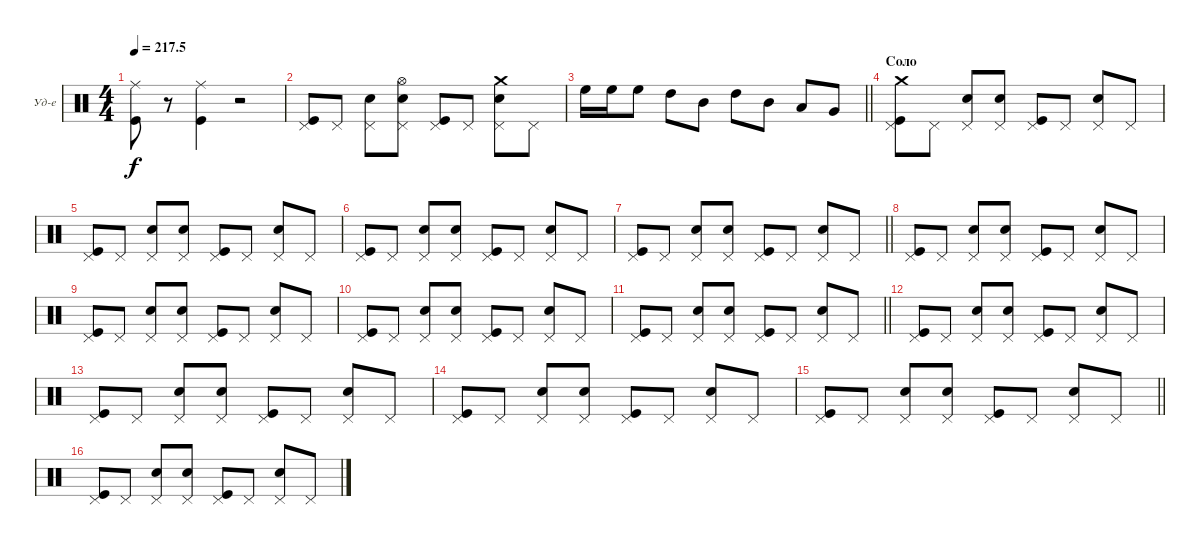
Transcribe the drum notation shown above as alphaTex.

\bracketExtendMode groupsimilarinstruments
\firstSystemTrackNameOrientation horizontal
\otherSystemsTrackNameOrientation horizontal
\track ("Ударные" "Уд-е") {instrument percussion}
\staff {score}
\articulation defaults
\ts (4 4)
\tempo
217.5
\accidentals auto
\clef neutral
\ottava regular
\simile none
\ks c
("Kick (hit)" "Ride (middle)").8{dy f} r.8 ("Kick (hit)" "Ride (middle)").4 r.2 |
("Pedal Hi-Hat (hit)" "Kick (hit)").8 "Pedal Hi-Hat (hit)".8 ("Pedal Hi-Hat (hit)" "Snare (hit) 2").8 ("Pedal Hi-Hat (hit)" "Snare (hit) 2" "Hi-Hat (open)").8 ("Pedal Hi-Hat (hit)" "Kick (hit)").8 "Pedal Hi-Hat (hit)".8 ("Pedal Hi-Hat (hit)" "Snare (hit) 2" "Crash medium (hit)").8 "Pedal Hi-Hat (hit)".8 |
\barLineRight lightlight "High Floor Tom (hit)".16 "High Floor Tom (hit)".16 "High Floor Tom (hit)".8 "High Tom (hit)".8 "Mid Tom (hit)".8 "High Tom (hit)".8 "Mid Tom (hit)".8 "Low Tom (hit)".8 "Very Low Tom (hit)".8
|
\section ("" "Соло")
("Pedal Hi-Hat (hit)" "Kick (hit)" "Crash medium (hit)").8 "Pedal Hi-Hat (hit)".8 ("Pedal Hi-Hat (hit)" "Snare (hit) 2").8 ("Pedal Hi-Hat (hit)" "Snare (hit) 2").8 ("Pedal Hi-Hat (hit)" "Kick (hit)").8 "Pedal Hi-Hat (hit)".8 ("Pedal Hi-Hat (hit)" "Snare (hit) 2").8 "Pedal Hi-Hat (hit)".8 |
("Pedal Hi-Hat (hit)" "Kick (hit)").8 "Pedal Hi-Hat (hit)".8 ("Pedal Hi-Hat (hit)" "Snare (hit) 2").8 ("Pedal Hi-Hat (hit)" "Snare (hit) 2").8 ("Pedal Hi-Hat (hit)" "Kick (hit)").8 "Pedal Hi-Hat (hit)".8 ("Pedal Hi-Hat (hit)" "Snare (hit) 2").8 "Pedal Hi-Hat (hit)".8 |
("Pedal Hi-Hat (hit)" "Kick (hit)").8 "Pedal Hi-Hat (hit)".8 ("Pedal Hi-Hat (hit)" "Snare (hit) 2").8 ("Pedal Hi-Hat (hit)" "Snare (hit) 2").8 ("Pedal Hi-Hat (hit)" "Kick (hit)").8 "Pedal Hi-Hat (hit)".8 ("Pedal Hi-Hat (hit)" "Snare (hit) 2").8 "Pedal Hi-Hat (hit)".8 |
\barLineRight lightlight
("Pedal Hi-Hat (hit)" "Kick (hit)").8 "Pedal Hi-Hat (hit)".8 ("Pedal Hi-Hat (hit)" "Snare (hit) 2").8 ("Pedal Hi-Hat (hit)" "Snare (hit) 2").8 ("Pedal Hi-Hat (hit)" "Kick (hit)").8 "Pedal Hi-Hat (hit)".8 ("Pedal Hi-Hat (hit)" "Snare (hit) 2").8 "Pedal Hi-Hat (hit)".8 |
("Pedal Hi-Hat (hit)" "Kick (hit)").8 "Pedal Hi-Hat (hit)".8 ("Pedal Hi-Hat (hit)" "Snare (hit) 2").8 ("Pedal Hi-Hat (hit)" "Snare (hit) 2").8 ("Pedal Hi-Hat (hit)" "Kick (hit)").8 "Pedal Hi-Hat (hit)".8 ("Pedal Hi-Hat (hit)" "Snare (hit) 2").8 "Pedal Hi-Hat (hit)".8 |
("Pedal Hi-Hat (hit)" "Kick (hit)").8 "Pedal Hi-Hat (hit)".8 ("Pedal Hi-Hat (hit)" "Snare (hit) 2").8 ("Pedal Hi-Hat (hit)" "Snare (hit) 2").8 ("Pedal Hi-Hat (hit)" "Kick (hit)").8 "Pedal Hi-Hat (hit)".8 ("Pedal Hi-Hat (hit)" "Snare (hit) 2").8 "Pedal Hi-Hat (hit)".8 |
("Pedal Hi-Hat (hit)" "Kick (hit)").8 "Pedal Hi-Hat (hit)".8 ("Pedal Hi-Hat (hit)" "Snare (hit) 2").8 ("Pedal Hi-Hat (hit)" "Snare (hit) 2").8 ("Pedal Hi-Hat (hit)" "Kick (hit)").8 "Pedal Hi-Hat (hit)".8 ("Pedal Hi-Hat (hit)" "Snare (hit) 2").8 "Pedal Hi-Hat (hit)".8 |
\barLineRight lightlight
("Pedal Hi-Hat (hit)" "Kick (hit)").8 "Pedal Hi-Hat (hit)".8 ("Pedal Hi-Hat (hit)" "Snare (hit) 2").8 ("Pedal Hi-Hat (hit)" "Snare (hit) 2").8 ("Pedal Hi-Hat (hit)" "Kick (hit)").8 "Pedal Hi-Hat (hit)".8 ("Pedal Hi-Hat (hit)" "Snare (hit) 2").8 "Pedal Hi-Hat (hit)".8 |
("Pedal Hi-Hat (hit)" "Kick (hit)").8 "Pedal Hi-Hat (hit)".8 ("Pedal Hi-Hat (hit)" "Snare (hit) 2").8 ("Pedal Hi-Hat (hit)" "Snare (hit) 2").8 ("Pedal Hi-Hat (hit)" "Kick (hit)").8 "Pedal Hi-Hat (hit)".8 ("Pedal Hi-Hat (hit)" "Snare (hit) 2").8 "Pedal Hi-Hat (hit)".8 |
("Pedal Hi-Hat (hit)" "Kick (hit)").8 "Pedal Hi-Hat (hit)".8 ("Pedal Hi-Hat (hit)" "Snare (hit) 2").8 ("Pedal Hi-Hat (hit)" "Snare (hit) 2").8 ("Pedal Hi-Hat (hit)" "Kick (hit)").8 "Pedal Hi-Hat (hit)".8 ("Pedal Hi-Hat (hit)" "Snare (hit) 2").8 "Pedal Hi-Hat (hit)".8 |
("Pedal Hi-Hat (hit)" "Kick (hit)").8 "Pedal Hi-Hat (hit)".8 ("Pedal Hi-Hat (hit)" "Snare (hit) 2").8 ("Pedal Hi-Hat (hit)" "Snare (hit) 2").8 ("Pedal Hi-Hat (hit)" "Kick (hit)").8 "Pedal Hi-Hat (hit)".8 ("Pedal Hi-Hat (hit)" "Snare (hit) 2").8 "Pedal Hi-Hat (hit)".8 |
\barLineRight lightlight
("Pedal Hi-Hat (hit)" "Kick (hit)").8 "Pedal Hi-Hat (hit)".8 ("Pedal Hi-Hat (hit)" "Snare (hit) 2").8 ("Pedal Hi-Hat (hit)" "Snare (hit) 2").8 ("Pedal Hi-Hat (hit)" "Kick (hit)").8 "Pedal Hi-Hat (hit)".8 ("Pedal Hi-Hat (hit)" "Snare (hit) 2").8 "Pedal Hi-Hat (hit)".8 |
("Pedal Hi-Hat (hit)" "Kick (hit)").8 "Pedal Hi-Hat (hit)".8 ("Pedal Hi-Hat (hit)" "Snare (hit) 2").8 ("Pedal Hi-Hat (hit)" "Snare (hit) 2").8 ("Pedal Hi-Hat (hit)" "Kick (hit)").8 "Pedal Hi-Hat (hit)".8 ("Pedal Hi-Hat (hit)" "Snare (hit) 2").8 "Pedal Hi-Hat (hit)".8
